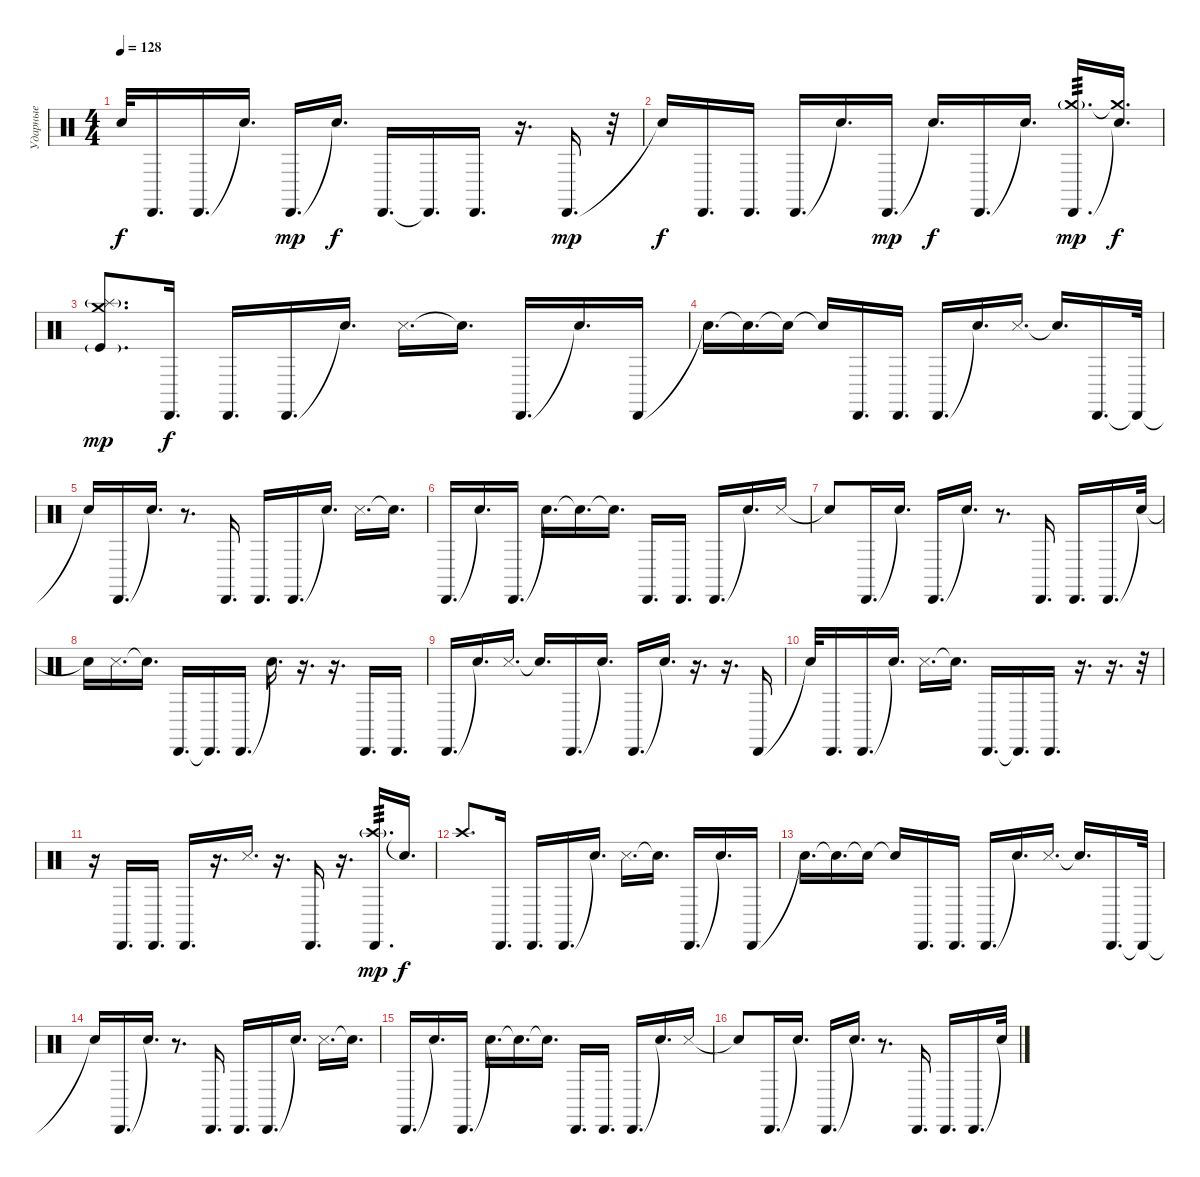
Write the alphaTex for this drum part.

\track ("Ударные" "Ударные") {instrument percussion}
\staff {score}
\articulation defaults
\ts (4 4)
\tempo 128
\clef neutral
\ks c "Snare (hit)"{t}.32{dy f} "Cabasa (hit)".16{d} "Cabasa (hit)".16{d} "Snare (hit)"{t}.16{d} "Cabasa (hit)".16{d dy mp} "Snare (hit)"{t}.16{d dy f} "Cabasa (hit)".16{d} "Cabasa (hit)"{t}.16{d} "Cabasa (hit)".16{d}
r.16{d} "Cabasa (hit)".16{d dy mp} r.32 |
"Snare (hit)"{t}.16{dy f} "Cabasa (hit)".16{d} "Cabasa (hit)".16{d} "Cabasa (hit)".16{d} "Snare (hit)"{t}.16{d} "Cabasa (hit)".16{d dy mp} "Snare (hit)"{t}.16{d dy f} "Cabasa (hit)".16{d} "Snare (hit)"{t}.16{d} ("Crash medium (hit)"{g} "Cabasa (hit)").16{d tp 3 dy mp} ("Crash medium (hit)"{t} "Snare (hit)"{t}).16{d dy f} |
("Crash medium (hit)" "Splash (hit)"{g} "Kick (hit)"{g}).8{d dy mp} "Cabasa (hit)".16{d dy f} "Cabasa (hit)".16{d} "Cabasa (hit)".16{d} "Snare (hit)"{t}.16{d} "Metronome (hit)".16{d} "Snare (hit)"{t}.16{d} "Cabasa (hit)".16{d} "Snare (hit)"{t}.16{d} "Cabasa (hit)".16 |
"Snare (hit)"{t}.16{d} "Snare (hit)"{t}.16{d} "Snare (hit)"{t}.16 "Snare (hit)"{t}.16 "Cabasa (hit)".16{d} "Cabasa (hit)".16{d} "Cabasa (hit)".16{d} "Snare (hit)"{t}.16{d} "Metronome (hit)".16{d} "Snare (hit)"{t}.16{d} "Cabasa (hit)".16{d} "Cabasa (hit)"{t}.32 |
"Snare (hit)"{t}.16 "Cabasa (hit)".16{d} "Snare (hit)"{t}.16{d} r.8{d} "Cabasa (hit)".16{d} "Cabasa (hit)".16{d} "Cabasa (hit)".16{d} "Snare (hit)"{t}.16{d} "Metronome (hit)".16{d} "Snare (hit)"{t}.16{d} |
"Cabasa (hit)".16{d} "Snare (hit)"{t}.16{d} "Cabasa (hit)".16{d} "Snare (hit)"{t}.16{d} "Snare (hit)"{t}.16{d} "Snare (hit)"{t}.16{d} "Cabasa (hit)".16{d} "Cabasa (hit)".16{d} "Cabasa (hit)".16{d} "Snare (hit)"{t}.16{d} "Metronome (hit)".16 |
"Snare (hit)"{t}.8 "Cabasa (hit)".16{d} "Snare (hit)"{t}.16{d} "Cabasa (hit)".16{d} "Snare (hit)"{t}.16{d} r.8{d} "Cabasa (hit)".16{d} "Cabasa (hit)".16{d} "Cabasa (hit)".16{d} "Snare (hit)"{t}.32 |
"Snare (hit)"{t}.16 "Metronome (hit)".16{d} "Snare (hit)"{t}.16{d} "Cabasa (hit)".16{d} "Cabasa (hit)"{t}.16{d} "Cabasa (hit)".16{d} "Snare (hit)"{t}.16{d} r.16{d} r.16{d} "Cabasa (hit)".16{d} "Cabasa (hit)".16{d} |
"Cabasa (hit)".16{d} "Snare (hit)"{t}.16{d} "Metronome (hit)".16{d} "Snare (hit)"{t}.16{d} "Cabasa (hit)".16{d} "Snare (hit)"{t}.16{d} "Cabasa (hit)".16{d} "Snare (hit)"{t}.16{d} r.16{d} r.16{d} "Cabasa (hit)".16 |
"Snare (hit)"{t}.32 "Cabasa (hit)".16{d} "Cabasa (hit)".16{d} "Snare (hit)"{t}.16{d} "Metronome (hit)".16{d} "Snare (hit)"{t}.16{d} "Cabasa (hit)".16{d} "Cabasa (hit)"{t}.16{d} "Cabasa (hit)".16{d} r.16{d} r.16{d} r.32 |
r.16 "Cabasa (hit)".16{d} "Cabasa (hit)".16{d} "Cabasa (hit)".16{d} r.16{d} "Metronome (hit)".16{d} r.16{d} "Cabasa (hit)".16{d} r.16{d} ("Crash high (hit)"{g} "Cabasa (hit)").16{d tp 3 dy mp} "Snare (hit)"{t}.16{d dy f} |
"Crash high (hit)".8{d} "Cabasa (hit)".16{d} "Cabasa (hit)".16{d} "Cabasa (hit)".16{d} "Snare (hit)"{t}.16{d} "Metronome (hit)".16{d} "Snare (hit)"{t}.16{d} "Cabasa (hit)".16{d} "Snare (hit)"{t}.16{d} "Cabasa (hit)".16 |
"Snare (hit)"{t}.16{d} "Snare (hit)"{t}.16{d} "Snare (hit)"{t}.16 "Snare (hit)"{t}.16 "Cabasa (hit)".16{d} "Cabasa (hit)".16{d} "Cabasa (hit)".16{d} "Snare (hit)"{t}.16{d} "Metronome (hit)".16{d} "Snare (hit)"{t}.16{d} "Cabasa (hit)".16{d} "Cabasa (hit)"{t}.32 |
"Snare (hit)"{t}.16 "Cabasa (hit)".16{d} "Snare (hit)"{t}.16{d} r.8{d} "Cabasa (hit)".16{d} "Cabasa (hit)".16{d} "Cabasa (hit)".16{d} "Snare (hit)"{t}.16{d} "Metronome (hit)".16{d} "Snare (hit)"{t}.16{d} |
"Cabasa (hit)".16{d} "Snare (hit)"{t}.16{d} "Cabasa (hit)".16{d} "Snare (hit)"{t}.16{d} "Snare (hit)"{t}.16{d} "Snare (hit)"{t}.16{d} "Cabasa (hit)".16{d} "Cabasa (hit)".16{d} "Cabasa (hit)".16{d} "Snare (hit)"{t}.16{d} "Metronome (hit)".16 |
"Snare (hit)"{t}.8 "Cabasa (hit)".16{d} "Snare (hit)"{t}.16{d} "Cabasa (hit)".16{d} "Snare (hit)"{t}.16{d} r.8{d} "Cabasa (hit)".16{d} "Cabasa (hit)".16{d} "Cabasa (hit)".16{d} "Snare (hit)"{t}.32
